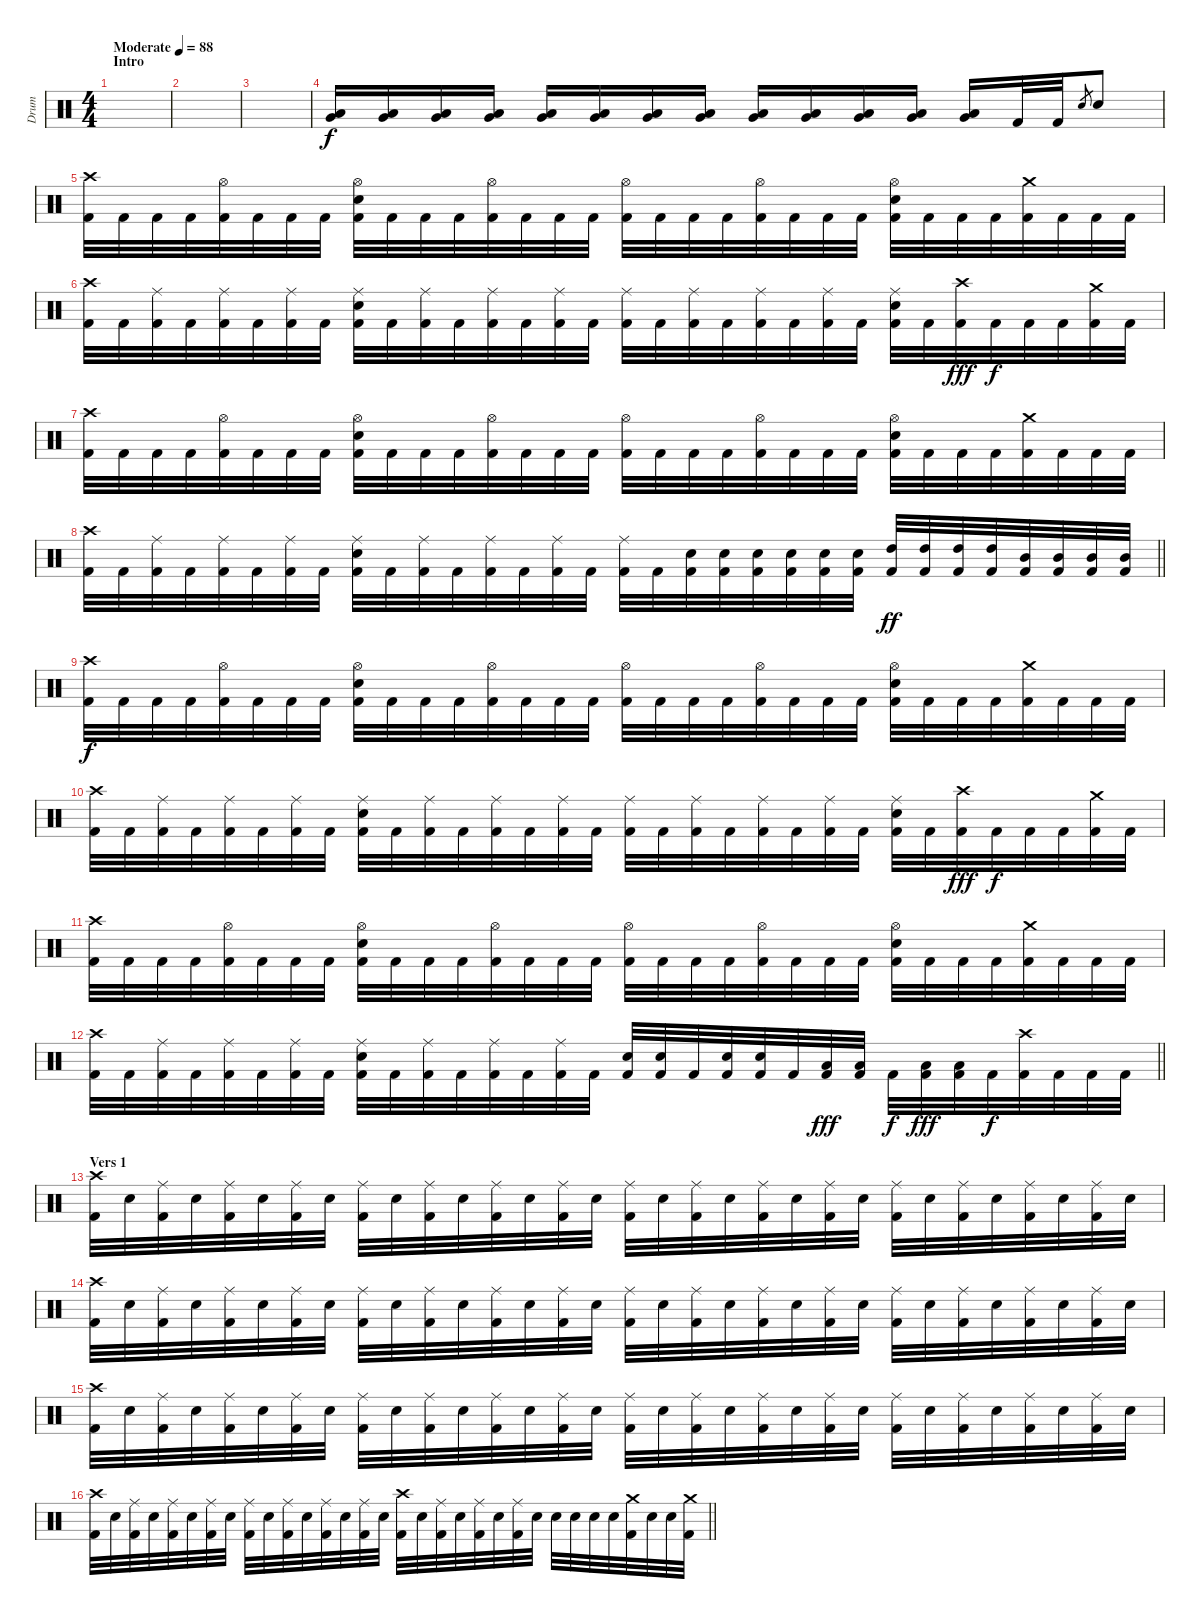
\track ("Drum" "Drum") {instrument percussion}
\staff {score}
\articulation defaults
\ts (4 4)
\section ("" "Intro")
\tempo (88 "Moderate")
\clef neutral
\ks c
|
|
|
("Very Low Tom (hit)" "Low Floor Tom (hit)").16 ("Very Low Tom (hit)" "Low Floor Tom (hit)").16 ("Very Low Tom (hit)" "Low Floor Tom (hit)").16 ("Very Low Tom (hit)" "Low Floor Tom (hit)").16 ("Very Low Tom (hit)" "Low Floor Tom (hit)").16 ("Very Low Tom (hit)" "Low Floor Tom (hit)").16 ("Very Low Tom (hit)" "Low Floor Tom (hit)").16 ("Very Low Tom (hit)" "Low Floor Tom (hit)").16 ("Very Low Tom (hit)" "Low Floor Tom (hit)").16 ("Very Low Tom (hit)" "Low Floor Tom (hit)").16 ("Very Low Tom (hit)" "Low Floor Tom (hit)").16 ("Very Low Tom (hit)" "Low Floor Tom (hit)").16 ("Very Low Tom (hit)" "Low Floor Tom (hit)").16 "Kick (hit) 2".32{dy f} "Kick (hit) 2".32 "Electric Snare (hit)".8{gr} "Electric Snare (hit)".8 |
("Crash high (hit)" "Kick (hit) 2").32 "Kick (hit) 2".32 "Kick (hit) 2".32 "Kick (hit) 2".32 ("Hi-Hat (open)" "Kick (hit) 2").32 "Kick (hit) 2".32 "Kick (hit) 2".32 "Kick (hit) 2".32 ("Hi-Hat (open)" "Electric Snare (hit)" "Kick (hit) 2").32 "Kick (hit) 2".32 "Kick (hit) 2".32 "Kick (hit) 2".32 ("Hi-Hat (open)" "Kick (hit) 2").32 "Kick (hit) 2".32 "Kick (hit) 2".32 "Kick (hit) 2".32 ("Hi-Hat (open)" "Kick (hit) 2").32 "Kick (hit) 2".32 "Kick (hit) 2".32 "Kick (hit) 2".32 ("Hi-Hat (open)" "Kick (hit) 2").32 "Kick (hit) 2".32 "Kick (hit) 2".32 "Kick (hit) 2".32 ("Hi-Hat (open)" "Electric Snare (hit)" "Kick (hit) 2").32 "Kick (hit) 2".32 "Kick (hit) 2".32 "Kick (hit) 2".32 ("Crash medium (hit)" "Kick (hit) 2").32 "Kick (hit) 2".32 "Kick (hit) 2".32 "Kick (hit) 2".32 |
("Crash high (hit)" "Kick (hit) 2").32 "Kick (hit) 2".32 ("Ride (middle)" "Kick (hit) 2").32 "Kick (hit) 2".32 ("Ride (middle)" "Kick (hit) 2").32 "Kick (hit) 2".32 ("Ride (middle)" "Kick (hit) 2").32 "Kick (hit) 2".32 ("Ride (middle)" "Electric Snare (hit)" "Kick (hit) 2").32 "Kick (hit) 2".32 ("Ride (middle)" "Kick (hit) 2").32 "Kick (hit) 2".32 ("Ride (middle)" "Kick (hit) 2").32 "Kick (hit) 2".32 ("Ride (middle)" "Kick (hit) 2").32 "Kick (hit) 2".32 ("Ride (middle)" "Kick (hit) 2").32 "Kick (hit) 2".32 ("Ride (middle)" "Kick (hit) 2").32 "Kick (hit) 2".32 ("Ride (middle)" "Kick (hit) 2").32 "Kick (hit) 2".32 ("Ride (middle)" "Kick (hit) 2").32 "Kick (hit) 2".32 ("Ride (middle)" "Electric Snare (hit)" "Kick (hit) 2").32 "Kick (hit) 2".32 ("Crash high (hit)" "Kick (hit) 2").32{dy fff} "Kick (hit) 2".32{dy f} "Kick (hit) 2".32 "Kick (hit) 2".32 ("Crash medium (hit)" "Kick (hit) 2").32 "Kick (hit) 2".32 |
("Crash high (hit)" "Kick (hit) 2").32 "Kick (hit) 2".32 "Kick (hit) 2".32 "Kick (hit) 2".32 ("Hi-Hat (open)" "Kick (hit) 2").32 "Kick (hit) 2".32 "Kick (hit) 2".32 "Kick (hit) 2".32 ("Hi-Hat (open)" "Electric Snare (hit)" "Kick (hit) 2").32 "Kick (hit) 2".32 "Kick (hit) 2".32 "Kick (hit) 2".32 ("Hi-Hat (open)" "Kick (hit) 2").32 "Kick (hit) 2".32 "Kick (hit) 2".32 "Kick (hit) 2".32 ("Hi-Hat (open)" "Kick (hit) 2").32 "Kick (hit) 2".32 "Kick (hit) 2".32 "Kick (hit) 2".32 ("Hi-Hat (open)" "Kick (hit) 2").32 "Kick (hit) 2".32 "Kick (hit) 2".32 "Kick (hit) 2".32 ("Hi-Hat (open)" "Electric Snare (hit)" "Kick (hit) 2").32 "Kick (hit) 2".32 "Kick (hit) 2".32 "Kick (hit) 2".32 ("Crash medium (hit)" "Kick (hit) 2").32 "Kick (hit) 2".32 "Kick (hit) 2".32 "Kick (hit) 2".32 |
\barLineRight lightlight
("Crash high (hit)" "Kick (hit) 2").32 "Kick (hit) 2".32 ("Ride (middle)" "Kick (hit) 2").32 "Kick (hit) 2".32 ("Ride (middle)" "Kick (hit) 2").32 "Kick (hit) 2".32 ("Ride (middle)" "Kick (hit) 2").32 "Kick (hit) 2".32 ("Ride (middle)" "Electric Snare (hit)" "Kick (hit) 2").32 "Kick (hit) 2".32 ("Ride (middle)" "Kick (hit) 2").32 "Kick (hit) 2".32 ("Ride (middle)" "Kick (hit) 2").32 "Kick (hit) 2".32 ("Ride (middle)" "Kick (hit) 2").32 "Kick (hit) 2".32 ("Ride (middle)" "Kick (hit) 2").32 "Kick (hit) 2".32 ("Electric Snare (hit)" "Kick (hit) 2").32 ("Electric Snare (hit)" "Kick (hit) 2").32 ("Electric Snare (hit)" "Kick (hit) 2").32 ("Electric Snare (hit)" "Kick (hit) 2").32 ("Electric Snare (hit)" "Kick (hit) 2").32 ("Electric Snare (hit)" "Kick (hit) 2").32 ("High Tom (hit)" "Kick (hit) 2").32{dy ff} ("High Tom (hit)" "Kick (hit) 2").32 ("High Tom (hit)" "Kick (hit) 2").32 ("High Tom (hit)" "Kick (hit) 2").32 ("Mid Tom (hit)" "Kick (hit) 2").32 ("Mid Tom (hit)" "Kick (hit) 2").32 ("Mid Tom (hit)" "Kick (hit) 2").32 ("Mid Tom (hit)" "Kick (hit) 2").32 |
("Crash high (hit)" "Kick (hit) 2").32{dy f} "Kick (hit) 2".32 "Kick (hit) 2".32 "Kick (hit) 2".32 ("Hi-Hat (open)" "Kick (hit) 2").32 "Kick (hit) 2".32 "Kick (hit) 2".32 "Kick (hit) 2".32 ("Hi-Hat (open)" "Electric Snare (hit)" "Kick (hit) 2").32 "Kick (hit) 2".32 "Kick (hit) 2".32 "Kick (hit) 2".32 ("Hi-Hat (open)" "Kick (hit) 2").32 "Kick (hit) 2".32 "Kick (hit) 2".32 "Kick (hit) 2".32 ("Hi-Hat (open)" "Kick (hit) 2").32 "Kick (hit) 2".32 "Kick (hit) 2".32 "Kick (hit) 2".32 ("Hi-Hat (open)" "Kick (hit) 2").32 "Kick (hit) 2".32 "Kick (hit) 2".32 "Kick (hit) 2".32 ("Hi-Hat (open)" "Electric Snare (hit)" "Kick (hit) 2").32 "Kick (hit) 2".32 "Kick (hit) 2".32 "Kick (hit) 2".32 ("Crash medium (hit)" "Kick (hit) 2").32 "Kick (hit) 2".32 "Kick (hit) 2".32 "Kick (hit) 2".32 |
("Crash high (hit)" "Kick (hit) 2").32 "Kick (hit) 2".32 ("Ride (middle)" "Kick (hit) 2").32 "Kick (hit) 2".32 ("Ride (middle)" "Kick (hit) 2").32 "Kick (hit) 2".32 ("Ride (middle)" "Kick (hit) 2").32 "Kick (hit) 2".32 ("Ride (middle)" "Electric Snare (hit)" "Kick (hit) 2").32 "Kick (hit) 2".32 ("Ride (middle)" "Kick (hit) 2").32 "Kick (hit) 2".32 ("Ride (middle)" "Kick (hit) 2").32 "Kick (hit) 2".32 ("Ride (middle)" "Kick (hit) 2").32 "Kick (hit) 2".32 ("Ride (middle)" "Kick (hit) 2").32 "Kick (hit) 2".32 ("Ride (middle)" "Kick (hit) 2").32 "Kick (hit) 2".32 ("Ride (middle)" "Kick (hit) 2").32 "Kick (hit) 2".32 ("Ride (middle)" "Kick (hit) 2").32 "Kick (hit) 2".32 ("Ride (middle)" "Electric Snare (hit)" "Kick (hit) 2").32 "Kick (hit) 2".32 ("Crash high (hit)" "Kick (hit) 2").32{dy fff} "Kick (hit) 2".32{dy f} "Kick (hit) 2".32 "Kick (hit) 2".32 ("Crash medium (hit)" "Kick (hit) 2").32 "Kick (hit) 2".32 |
("Crash high (hit)" "Kick (hit) 2").32 "Kick (hit) 2".32 "Kick (hit) 2".32 "Kick (hit) 2".32 ("Hi-Hat (open)" "Kick (hit) 2").32 "Kick (hit) 2".32 "Kick (hit) 2".32 "Kick (hit) 2".32 ("Hi-Hat (open)" "Electric Snare (hit)" "Kick (hit) 2").32 "Kick (hit) 2".32 "Kick (hit) 2".32 "Kick (hit) 2".32 ("Hi-Hat (open)" "Kick (hit) 2").32 "Kick (hit) 2".32 "Kick (hit) 2".32 "Kick (hit) 2".32 ("Hi-Hat (open)" "Kick (hit) 2").32 "Kick (hit) 2".32 "Kick (hit) 2".32 "Kick (hit) 2".32 ("Hi-Hat (open)" "Kick (hit) 2").32 "Kick (hit) 2".32 "Kick (hit) 2".32 "Kick (hit) 2".32 ("Hi-Hat (open)" "Electric Snare (hit)" "Kick (hit) 2").32 "Kick (hit) 2".32 "Kick (hit) 2".32 "Kick (hit) 2".32 ("Crash medium (hit)" "Kick (hit) 2").32 "Kick (hit) 2".32 "Kick (hit) 2".32 "Kick (hit) 2".32 |
\barLineRight lightlight
("Crash high (hit)" "Kick (hit) 2").32 "Kick (hit) 2".32 ("Ride (middle)" "Kick (hit) 2").32 "Kick (hit) 2".32 ("Ride (middle)" "Kick (hit) 2").32 "Kick (hit) 2".32 ("Ride (middle)" "Kick (hit) 2").32 "Kick (hit) 2".32 ("Ride (middle)" "Electric Snare (hit)" "Kick (hit) 2").32 "Kick (hit) 2".32 ("Ride (middle)" "Kick (hit) 2").32 "Kick (hit) 2".32 ("Ride (middle)" "Kick (hit) 2").32 "Kick (hit) 2".32 ("Ride (middle)" "Kick (hit) 2").32 "Kick (hit) 2".32 ("Electric Snare (hit)" "Kick (hit) 2").32 ("Electric Snare (hit)" "Kick (hit) 2").32 "Kick (hit) 2".32 ("Electric Snare (hit)" "Kick (hit) 2").32 ("Electric Snare (hit)" "Kick (hit) 2").32 "Kick (hit) 2".32 ("Low Tom (hit)" "Kick (hit) 2").32{dy fff} ("Low Tom (hit)" "Kick (hit) 2").32 "Kick (hit) 2".32{dy f} ("Low Tom (hit)" "Kick (hit) 2").32{dy fff} ("Low Tom (hit)" "Kick (hit) 2").32 "Kick (hit) 2".32{dy f} ("Crash high (hit)" "Kick (hit) 2").32 "Kick (hit) 2".32 "Kick (hit) 2".32 "Kick (hit) 2".32 |
\section ("" "Vers 1")
("Crash high (hit)" "Kick (hit) 2").32 "Electric Snare (hit)".32 ("Ride (middle)" "Kick (hit) 2").32 "Electric Snare (hit)".32 ("Ride (middle)" "Kick (hit) 2").32 "Electric Snare (hit)".32 ("Ride (middle)" "Kick (hit) 2").32 "Electric Snare (hit)".32 ("Ride (middle)" "Kick (hit) 2").32 "Electric Snare (hit)".32 ("Ride (middle)" "Kick (hit) 2").32 "Electric Snare (hit)".32 ("Ride (middle)" "Kick (hit) 2").32 "Electric Snare (hit)".32 ("Ride (middle)" "Kick (hit) 2").32 "Electric Snare (hit)".32 ("Ride (middle)" "Kick (hit) 2").32 "Electric Snare (hit)".32 ("Ride (middle)" "Kick (hit) 2").32 "Electric Snare (hit)".32 ("Ride (middle)" "Kick (hit) 2").32 "Electric Snare (hit)".32 ("Ride (middle)" "Kick (hit) 2").32 "Electric Snare (hit)".32 ("Ride (middle)" "Kick (hit) 2").32 "Electric Snare (hit)".32 ("Ride (middle)" "Kick (hit) 2").32 "Electric Snare (hit)".32 ("Ride (middle)" "Kick (hit) 2").32 "Electric Snare (hit)".32 ("Ride (middle)" "Kick (hit) 2").32 "Electric Snare (hit)".32 |
("Crash high (hit)" "Kick (hit) 2").32 "Electric Snare (hit)".32 ("Ride (middle)" "Kick (hit) 2").32 "Electric Snare (hit)".32 ("Ride (middle)" "Kick (hit) 2").32 "Electric Snare (hit)".32 ("Ride (middle)" "Kick (hit) 2").32 "Electric Snare (hit)".32 ("Ride (middle)" "Kick (hit) 2").32 "Electric Snare (hit)".32 ("Ride (middle)" "Kick (hit) 2").32 "Electric Snare (hit)".32 ("Ride (middle)" "Kick (hit) 2").32 "Electric Snare (hit)".32 ("Ride (middle)" "Kick (hit) 2").32 "Electric Snare (hit)".32 ("Ride (middle)" "Kick (hit) 2").32 "Electric Snare (hit)".32 ("Ride (middle)" "Kick (hit) 2").32 "Electric Snare (hit)".32 ("Ride (middle)" "Kick (hit) 2").32 "Electric Snare (hit)".32 ("Ride (middle)" "Kick (hit) 2").32 "Electric Snare (hit)".32 ("Ride (middle)" "Kick (hit) 2").32 "Electric Snare (hit)".32 ("Ride (middle)" "Kick (hit) 2").32 "Electric Snare (hit)".32 ("Ride (middle)" "Kick (hit) 2").32 "Electric Snare (hit)".32 ("Ride (middle)" "Kick (hit) 2").32 "Electric Snare (hit)".32 |
("Crash high (hit)" "Kick (hit) 2").32 "Electric Snare (hit)".32 ("Ride (middle)" "Kick (hit) 2").32 "Electric Snare (hit)".32 ("Ride (middle)" "Kick (hit) 2").32 "Electric Snare (hit)".32 ("Ride (middle)" "Kick (hit) 2").32 "Electric Snare (hit)".32 ("Ride (middle)" "Kick (hit) 2").32 "Electric Snare (hit)".32 ("Ride (middle)" "Kick (hit) 2").32 "Electric Snare (hit)".32 ("Ride (middle)" "Kick (hit) 2").32 "Electric Snare (hit)".32 ("Ride (middle)" "Kick (hit) 2").32 "Electric Snare (hit)".32 ("Ride (middle)" "Kick (hit) 2").32 "Electric Snare (hit)".32 ("Ride (middle)" "Kick (hit) 2").32 "Electric Snare (hit)".32 ("Ride (middle)" "Kick (hit) 2").32 "Electric Snare (hit)".32 ("Ride (middle)" "Kick (hit) 2").32 "Electric Snare (hit)".32 ("Ride (middle)" "Kick (hit) 2").32 "Electric Snare (hit)".32 ("Ride (middle)" "Kick (hit) 2").32 "Electric Snare (hit)".32 ("Ride (middle)" "Kick (hit) 2").32 "Electric Snare (hit)".32 ("Ride (middle)" "Kick (hit) 2").32 "Electric Snare (hit)".32 |
\barLineRight lightlight
("Crash high (hit)" "Kick (hit) 2").32 "Electric Snare (hit)".32 ("Ride (middle)" "Kick (hit) 2").32 "Electric Snare (hit)".32 ("Ride (middle)" "Kick (hit) 2").32 "Electric Snare (hit)".32 ("Ride (middle)" "Kick (hit) 2").32 "Electric Snare (hit)".32 ("Ride (middle)" "Kick (hit) 2").32 "Electric Snare (hit)".32 ("Ride (middle)" "Kick (hit) 2").32 "Electric Snare (hit)".32 ("Ride (middle)" "Kick (hit) 2").32 "Electric Snare (hit)".32 ("Ride (middle)" "Kick (hit) 2").32 "Electric Snare (hit)".32 ("Crash high (hit)" "Kick (hit) 2").32 "Electric Snare (hit)".32 ("Ride (middle)" "Kick (hit) 2").32 "Electric Snare (hit)".32 ("Ride (middle)" "Kick (hit) 2").32 "Electric Snare (hit)".32 ("Ride (middle)" "Kick (hit) 2").32 "Electric Snare (hit)".32 "Electric Snare (hit)".32 "Electric Snare (hit)".32 "Electric Snare (hit)".32 "Electric Snare (hit)".32 ("Crash medium (hit)" "Kick (hit) 2").32 "Electric Snare (hit)".32 "Electric Snare (hit)".32 ("Crash medium (hit)" "Kick (hit) 2").32
